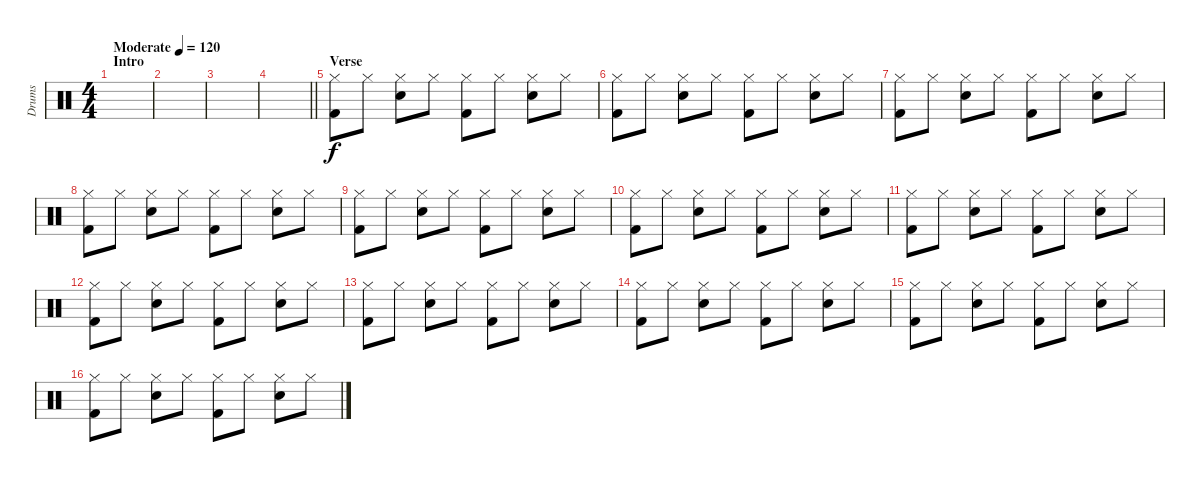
\track ("Drums" "Drums") {instrument percussion}
\staff {score}
\articulation defaults
\ts (4 4)
\section ("" "Intro")
\tempo (120 "Moderate")
\clef neutral
\ks c
|
|
|
\barLineRight lightlight
|
\section ("" "Verse")
("Hi-Hat (closed)" "Kick (hit) 2").8 "Hi-Hat (closed)".8 ("Hi-Hat (closed)" "Snare (hit) 2").8 "Hi-Hat (closed)".8 ("Hi-Hat (closed)" "Kick (hit) 2").8 "Hi-Hat (closed)".8 ("Hi-Hat (closed)" "Snare (hit) 2").8 "Hi-Hat (closed)".8 |
("Hi-Hat (closed)" "Kick (hit) 2").8 "Hi-Hat (closed)".8 ("Hi-Hat (closed)" "Snare (hit) 2").8 "Hi-Hat (closed)".8 ("Hi-Hat (closed)" "Kick (hit) 2").8 "Hi-Hat (closed)".8 ("Hi-Hat (closed)" "Snare (hit) 2").8 "Hi-Hat (closed)".8 |
("Hi-Hat (closed)" "Kick (hit) 2").8 "Hi-Hat (closed)".8 ("Hi-Hat (closed)" "Snare (hit) 2").8 "Hi-Hat (closed)".8 ("Hi-Hat (closed)" "Kick (hit) 2").8 "Hi-Hat (closed)".8 ("Hi-Hat (closed)" "Snare (hit) 2").8 "Hi-Hat (closed)".8 |
("Hi-Hat (closed)" "Kick (hit) 2").8 "Hi-Hat (closed)".8 ("Hi-Hat (closed)" "Snare (hit) 2").8 "Hi-Hat (closed)".8 ("Hi-Hat (closed)" "Kick (hit) 2").8 "Hi-Hat (closed)".8 ("Hi-Hat (closed)" "Snare (hit) 2").8 "Hi-Hat (closed)".8 |
("Hi-Hat (closed)" "Kick (hit) 2").8 "Hi-Hat (closed)".8 ("Hi-Hat (closed)" "Snare (hit) 2").8 "Hi-Hat (closed)".8 ("Hi-Hat (closed)" "Kick (hit) 2").8 "Hi-Hat (closed)".8 ("Hi-Hat (closed)" "Snare (hit) 2").8 "Hi-Hat (closed)".8 |
("Hi-Hat (closed)" "Kick (hit) 2").8 "Hi-Hat (closed)".8 ("Hi-Hat (closed)" "Snare (hit) 2").8 "Hi-Hat (closed)".8 ("Hi-Hat (closed)" "Kick (hit) 2").8 "Hi-Hat (closed)".8 ("Hi-Hat (closed)" "Snare (hit) 2").8 "Hi-Hat (closed)".8 |
("Hi-Hat (closed)" "Kick (hit) 2").8 "Hi-Hat (closed)".8 ("Hi-Hat (closed)" "Snare (hit) 2").8 "Hi-Hat (closed)".8 ("Hi-Hat (closed)" "Kick (hit) 2").8 "Hi-Hat (closed)".8 ("Hi-Hat (closed)" "Snare (hit) 2").8 "Hi-Hat (closed)".8 |
("Hi-Hat (closed)" "Kick (hit) 2").8 "Hi-Hat (closed)".8 ("Hi-Hat (closed)" "Snare (hit) 2").8 "Hi-Hat (closed)".8 ("Hi-Hat (closed)" "Kick (hit) 2").8 "Hi-Hat (closed)".8 ("Hi-Hat (closed)" "Snare (hit) 2").8 "Hi-Hat (closed)".8 |
("Hi-Hat (closed)" "Kick (hit) 2").8 "Hi-Hat (closed)".8 ("Hi-Hat (closed)" "Snare (hit) 2").8 "Hi-Hat (closed)".8 ("Hi-Hat (closed)" "Kick (hit) 2").8 "Hi-Hat (closed)".8 ("Hi-Hat (closed)" "Snare (hit) 2").8 "Hi-Hat (closed)".8 |
("Hi-Hat (closed)" "Kick (hit) 2").8 "Hi-Hat (closed)".8 ("Hi-Hat (closed)" "Snare (hit) 2").8 "Hi-Hat (closed)".8 ("Hi-Hat (closed)" "Kick (hit) 2").8 "Hi-Hat (closed)".8 ("Hi-Hat (closed)" "Snare (hit) 2").8 "Hi-Hat (closed)".8 |
("Hi-Hat (closed)" "Kick (hit) 2").8 "Hi-Hat (closed)".8 ("Hi-Hat (closed)" "Snare (hit) 2").8 "Hi-Hat (closed)".8 ("Hi-Hat (closed)" "Kick (hit) 2").8 "Hi-Hat (closed)".8 ("Hi-Hat (closed)" "Snare (hit) 2").8 "Hi-Hat (closed)".8 |
("Hi-Hat (closed)" "Kick (hit) 2").8 "Hi-Hat (closed)".8 ("Hi-Hat (closed)" "Snare (hit) 2").8 "Hi-Hat (closed)".8 ("Hi-Hat (closed)" "Kick (hit) 2").8 "Hi-Hat (closed)".8 ("Hi-Hat (closed)" "Snare (hit) 2").8 "Hi-Hat (closed)".8
